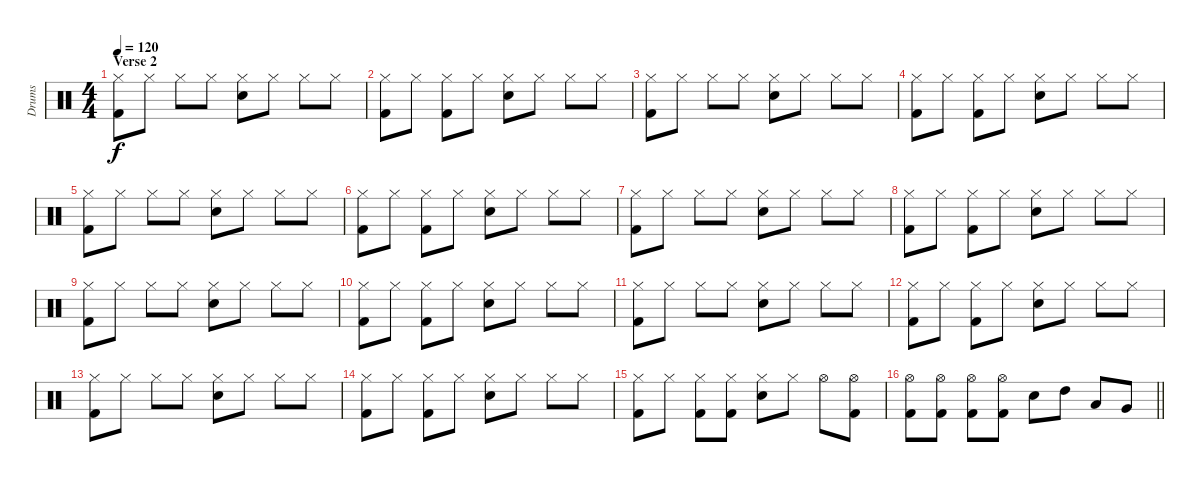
\track ("Drums" "Drums") {instrument percussion}
\staff {score}
\articulation defaults
\ts (4 4)
\section ("" "Verse 2")
\tempo 120
\clef neutral
\ks c
("Hi-Hat (closed)" "Kick (hit) 2").8{dy f} "Hi-Hat (closed)".8 "Hi-Hat (closed)".8 "Hi-Hat (closed)".8 ("Hi-Hat (closed)" "Snare (hit) 2").8 "Hi-Hat (closed)".8 "Hi-Hat (closed)".8 "Hi-Hat (closed)".8 |
("Hi-Hat (closed)" "Kick (hit) 2").8 "Hi-Hat (closed)".8 ("Hi-Hat (closed)" "Kick (hit) 2").8 "Hi-Hat (closed)".8 ("Hi-Hat (closed)" "Snare (hit) 2").8 "Hi-Hat (closed)".8 "Hi-Hat (closed)".8 "Hi-Hat (closed)".8 |
("Hi-Hat (closed)" "Kick (hit) 2").8 "Hi-Hat (closed)".8 "Hi-Hat (closed)".8 "Hi-Hat (closed)".8 ("Hi-Hat (closed)" "Snare (hit) 2").8 "Hi-Hat (closed)".8 "Hi-Hat (closed)".8 "Hi-Hat (closed)".8 |
("Hi-Hat (closed)" "Kick (hit) 2").8 "Hi-Hat (closed)".8 ("Hi-Hat (closed)" "Kick (hit) 2").8 "Hi-Hat (closed)".8 ("Hi-Hat (closed)" "Snare (hit) 2").8 "Hi-Hat (closed)".8 "Hi-Hat (closed)".8 "Hi-Hat (closed)".8 |
("Hi-Hat (closed)" "Kick (hit) 2").8 "Hi-Hat (closed)".8 "Hi-Hat (closed)".8 "Hi-Hat (closed)".8 ("Hi-Hat (closed)" "Snare (hit) 2").8 "Hi-Hat (closed)".8 "Hi-Hat (closed)".8 "Hi-Hat (closed)".8 |
("Hi-Hat (closed)" "Kick (hit) 2").8 "Hi-Hat (closed)".8 ("Hi-Hat (closed)" "Kick (hit) 2").8 "Hi-Hat (closed)".8 ("Hi-Hat (closed)" "Snare (hit) 2").8 "Hi-Hat (closed)".8 "Hi-Hat (closed)".8 "Hi-Hat (closed)".8 |
("Hi-Hat (closed)" "Kick (hit) 2").8 "Hi-Hat (closed)".8 "Hi-Hat (closed)".8 "Hi-Hat (closed)".8 ("Hi-Hat (closed)" "Snare (hit) 2").8 "Hi-Hat (closed)".8 "Hi-Hat (closed)".8 "Hi-Hat (closed)".8 |
("Hi-Hat (closed)" "Kick (hit) 2").8 "Hi-Hat (closed)".8 ("Hi-Hat (closed)" "Kick (hit) 2").8 "Hi-Hat (closed)".8 ("Hi-Hat (closed)" "Snare (hit) 2").8 "Hi-Hat (closed)".8 "Hi-Hat (closed)".8 "Hi-Hat (closed)".8 |
("Hi-Hat (closed)" "Kick (hit) 2").8 "Hi-Hat (closed)".8 "Hi-Hat (closed)".8 "Hi-Hat (closed)".8 ("Hi-Hat (closed)" "Snare (hit) 2").8 "Hi-Hat (closed)".8 "Hi-Hat (closed)".8 "Hi-Hat (closed)".8 |
("Hi-Hat (closed)" "Kick (hit) 2").8 "Hi-Hat (closed)".8 ("Hi-Hat (closed)" "Kick (hit) 2").8 "Hi-Hat (closed)".8 ("Hi-Hat (closed)" "Snare (hit) 2").8 "Hi-Hat (closed)".8 "Hi-Hat (closed)".8 "Hi-Hat (closed)".8 |
("Hi-Hat (closed)" "Kick (hit) 2").8 "Hi-Hat (closed)".8 "Hi-Hat (closed)".8 "Hi-Hat (closed)".8 ("Hi-Hat (closed)" "Snare (hit) 2").8 "Hi-Hat (closed)".8 "Hi-Hat (closed)".8 "Hi-Hat (closed)".8 |
("Hi-Hat (closed)" "Kick (hit) 2").8 "Hi-Hat (closed)".8 ("Hi-Hat (closed)" "Kick (hit) 2").8 "Hi-Hat (closed)".8 ("Hi-Hat (closed)" "Snare (hit) 2").8 "Hi-Hat (closed)".8 "Hi-Hat (closed)".8 "Hi-Hat (closed)".8 |
("Hi-Hat (closed)" "Kick (hit) 2").8 "Hi-Hat (closed)".8 "Hi-Hat (closed)".8 "Hi-Hat (closed)".8 ("Hi-Hat (closed)" "Snare (hit) 2").8 "Hi-Hat (closed)".8 "Hi-Hat (closed)".8 "Hi-Hat (closed)".8 |
("Hi-Hat (closed)" "Kick (hit) 2").8 "Hi-Hat (closed)".8 ("Hi-Hat (closed)" "Kick (hit) 2").8 "Hi-Hat (closed)".8 ("Hi-Hat (closed)" "Snare (hit) 2").8 "Hi-Hat (closed)".8 "Hi-Hat (closed)".8 "Hi-Hat (closed)".8 |
("Hi-Hat (closed)" "Kick (hit) 2").8 "Hi-Hat (closed)".8 ("Hi-Hat (closed)" "Kick (hit) 2").8 ("Hi-Hat (closed)" "Kick (hit) 2").8 ("Hi-Hat (closed)" "Snare (hit) 2").8 "Hi-Hat (closed)".8 "Hi-Hat (open)".8 ("Hi-Hat (open)" "Kick (hit) 2").8 |
\barLineRight lightlight
("Hi-Hat (open)" "Kick (hit) 2").8 ("Hi-Hat (open)" "Kick (hit) 2").8 ("Hi-Hat (open)" "Kick (hit) 2").8 ("Hi-Hat (open)" "Kick (hit) 2").8 "Snare (hit) 2".8 "High Tom (hit)".8 "Low Tom (hit)".8 "Very Low Tom (hit)".8
